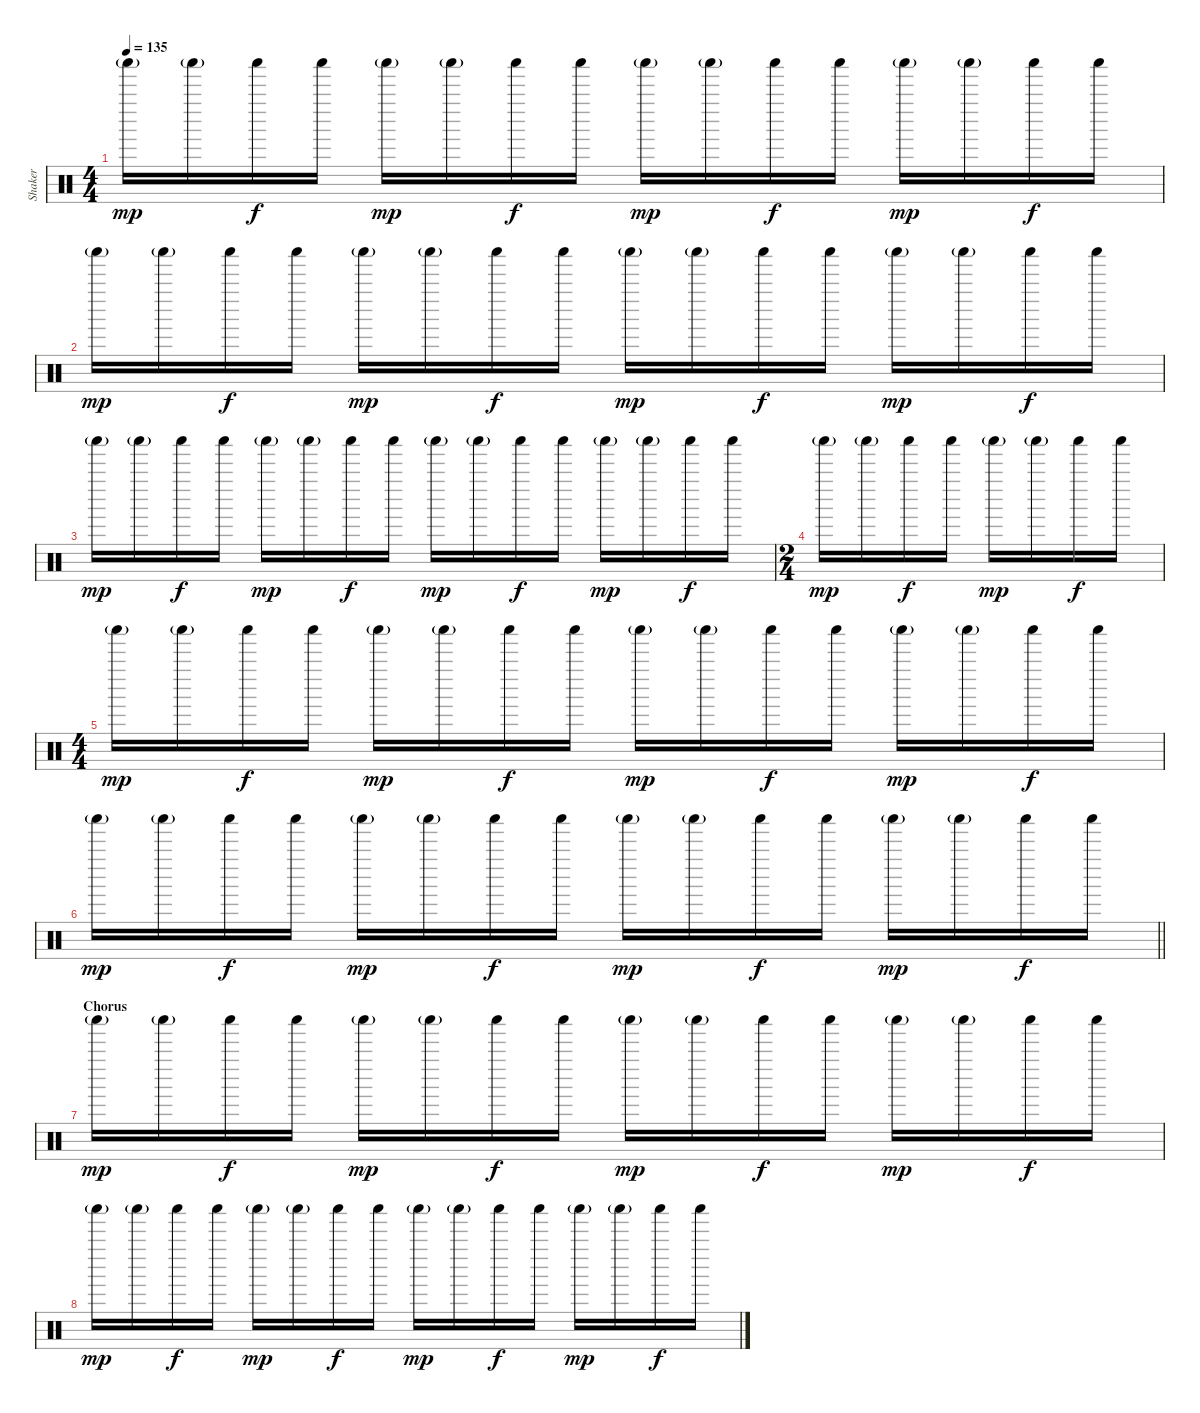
\track ("Shaker" "Shaker") {instrument percussion}
\staff {score}
\articulation defaults
\ts (4 4)
\tempo 135
\clef neutral
\ks c "Shaker (hit)"{g}.16{dy mp} "Shaker (hit)"{g}.16 "Shaker (hit)".16{dy f} "Shaker (hit)".16 "Shaker (hit)"{g}.16{dy mp} "Shaker (hit)"{g}.16 "Shaker (hit)".16{dy f} "Shaker (hit)".16 "Shaker (hit)"{g}.16{dy mp} "Shaker (hit)"{g}.16 "Shaker (hit)".16{dy f} "Shaker (hit)".16 "Shaker (hit)"{g}.16{dy mp} "Shaker (hit)"{g}.16 "Shaker (hit)".16{dy f} "Shaker (hit)".16
|
"Shaker (hit)"{g}.16{dy mp} "Shaker (hit)"{g}.16 "Shaker (hit)".16{dy f} "Shaker (hit)".16 "Shaker (hit)"{g}.16{dy mp} "Shaker (hit)"{g}.16 "Shaker (hit)".16{dy f} "Shaker (hit)".16 "Shaker (hit)"{g}.16{dy mp} "Shaker (hit)"{g}.16 "Shaker (hit)".16{dy f} "Shaker (hit)".16 "Shaker (hit)"{g}.16{dy mp} "Shaker (hit)"{g}.16 "Shaker (hit)".16{dy f} "Shaker (hit)".16 |
"Shaker (hit)"{g}.16{dy mp} "Shaker (hit)"{g}.16 "Shaker (hit)".16{dy f} "Shaker (hit)".16 "Shaker (hit)"{g}.16{dy mp} "Shaker (hit)"{g}.16 "Shaker (hit)".16{dy f} "Shaker (hit)".16 "Shaker (hit)"{g}.16{dy mp} "Shaker (hit)"{g}.16 "Shaker (hit)".16{dy f} "Shaker (hit)".16 "Shaker (hit)"{g}.16{dy mp} "Shaker (hit)"{g}.16 "Shaker (hit)".16{dy f} "Shaker (hit)".16 |
\ts (2 4)
"Shaker (hit)"{g}.16{dy mp} "Shaker (hit)"{g}.16 "Shaker (hit)".16{dy f} "Shaker (hit)".16 "Shaker (hit)"{g}.16{dy mp} "Shaker (hit)"{g}.16 "Shaker (hit)".16{dy f} "Shaker (hit)".16 |
\ts (4 4)
"Shaker (hit)"{g}.16{dy mp} "Shaker (hit)"{g}.16 "Shaker (hit)".16{dy f} "Shaker (hit)".16 "Shaker (hit)"{g}.16{dy mp} "Shaker (hit)"{g}.16 "Shaker (hit)".16{dy f} "Shaker (hit)".16 "Shaker (hit)"{g}.16{dy mp} "Shaker (hit)"{g}.16 "Shaker (hit)".16{dy f} "Shaker (hit)".16 "Shaker (hit)"{g}.16{dy mp} "Shaker (hit)"{g}.16 "Shaker (hit)".16{dy f} "Shaker (hit)".16 |
\barLineRight lightlight "Shaker (hit)"{g}.16{dy mp} "Shaker (hit)"{g}.16 "Shaker (hit)".16{dy f} "Shaker (hit)".16 "Shaker (hit)"{g}.16{dy mp} "Shaker (hit)"{g}.16 "Shaker (hit)".16{dy f} "Shaker (hit)".16 "Shaker (hit)"{g}.16{dy mp} "Shaker (hit)"{g}.16 "Shaker (hit)".16{dy f} "Shaker (hit)".16 "Shaker (hit)"{g}.16{dy mp} "Shaker (hit)"{g}.16 "Shaker (hit)".16{dy f} "Shaker (hit)".16
|
\section ("" "Chorus")
"Shaker (hit)"{g}.16{dy mp} "Shaker (hit)"{g}.16 "Shaker (hit)".16{dy f} "Shaker (hit)".16 "Shaker (hit)"{g}.16{dy mp} "Shaker (hit)"{g}.16 "Shaker (hit)".16{dy f} "Shaker (hit)".16 "Shaker (hit)"{g}.16{dy mp} "Shaker (hit)"{g}.16 "Shaker (hit)".16{dy f} "Shaker (hit)".16 "Shaker (hit)"{g}.16{dy mp} "Shaker (hit)"{g}.16 "Shaker (hit)".16{dy f} "Shaker (hit)".16 |
"Shaker (hit)"{g}.16{dy mp} "Shaker (hit)"{g}.16 "Shaker (hit)".16{dy f} "Shaker (hit)".16 "Shaker (hit)"{g}.16{dy mp} "Shaker (hit)"{g}.16 "Shaker (hit)".16{dy f} "Shaker (hit)".16 "Shaker (hit)"{g}.16{dy mp} "Shaker (hit)"{g}.16 "Shaker (hit)".16{dy f} "Shaker (hit)".16 "Shaker (hit)"{g}.16{dy mp} "Shaker (hit)"{g}.16 "Shaker (hit)".16{dy f} "Shaker (hit)".16
